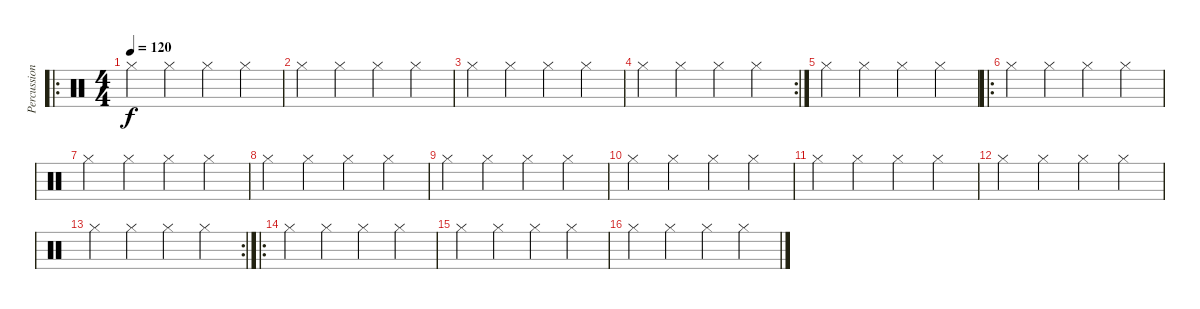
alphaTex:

\track ("Percussioni" "Percussion") {instrument percussion}
\staff {score}
\articulation defaults
\ro
\ts (4 4)
\tempo 120
\clef neutral
\ks c "Hi-Hat (closed)".4{dy f} "Hi-Hat (closed)".4 "Hi-Hat (closed)".4 "Hi-Hat (closed)".4
|
"Hi-Hat (closed)".4 "Hi-Hat (closed)".4 "Hi-Hat (closed)".4 "Hi-Hat (closed)".4 |
"Hi-Hat (closed)".4 "Hi-Hat (closed)".4 "Hi-Hat (closed)".4 "Hi-Hat (closed)".4 |
\rc 2 "Hi-Hat (closed)".4 "Hi-Hat (closed)".4 "Hi-Hat (closed)".4 "Hi-Hat (closed)".4
|
"Hi-Hat (closed)".4 "Hi-Hat (closed)".4 "Hi-Hat (closed)".4 "Hi-Hat (closed)".4 |
\ro "Hi-Hat (closed)".4 "Hi-Hat (closed)".4 "Hi-Hat (closed)".4 "Hi-Hat (closed)".4
|
"Hi-Hat (closed)".4 "Hi-Hat (closed)".4 "Hi-Hat (closed)".4 "Hi-Hat (closed)".4 |
"Hi-Hat (closed)".4 "Hi-Hat (closed)".4 "Hi-Hat (closed)".4 "Hi-Hat (closed)".4 |
"Hi-Hat (closed)".4 "Hi-Hat (closed)".4 "Hi-Hat (closed)".4 "Hi-Hat (closed)".4 |
"Hi-Hat (closed)".4 "Hi-Hat (closed)".4 "Hi-Hat (closed)".4 "Hi-Hat (closed)".4 |
"Hi-Hat (closed)".4 "Hi-Hat (closed)".4 "Hi-Hat (closed)".4 "Hi-Hat (closed)".4 |
"Hi-Hat (closed)".4 "Hi-Hat (closed)".4 "Hi-Hat (closed)".4 "Hi-Hat (closed)".4 |
\rc 2 "Hi-Hat (closed)".4 "Hi-Hat (closed)".4 "Hi-Hat (closed)".4 "Hi-Hat (closed)".4
|
\ro "Hi-Hat (closed)".4 "Hi-Hat (closed)".4 "Hi-Hat (closed)".4 "Hi-Hat (closed)".4
|
"Hi-Hat (closed)".4 "Hi-Hat (closed)".4 "Hi-Hat (closed)".4 "Hi-Hat (closed)".4 |
"Hi-Hat (closed)".4 "Hi-Hat (closed)".4 "Hi-Hat (closed)".4 "Hi-Hat (closed)".4
